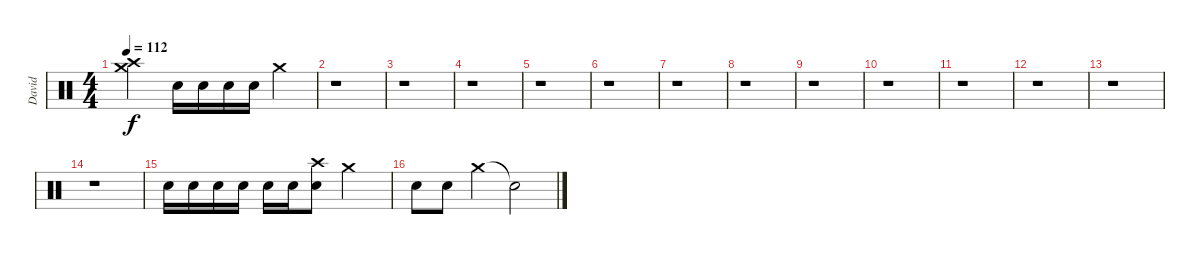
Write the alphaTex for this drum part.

\track ("David" "David") {instrument percussion}
\staff {score}
\articulation defaults
\ts (4 4)
\tempo 112
\clef neutral
\ks c
("Crash medium (hit)"{t} "Crash high (hit)"{t}).2{dy f} "Snare (hit) 2".16 "Snare (hit) 2".16 "Snare (hit) 2".16 "Snare (hit) 2".16 "Crash medium (hit)".4 |
r.1 |
r.1 |
r.1 |
r.1 |
r.1 |
r.1 |
r.1 |
r.1 |
r.1 |
r.1 |
r.1 |
r.1 |
r.1 |
"Snare (hit) 2".16 "Snare (hit) 2".16 "Snare (hit) 2".16 "Snare (hit) 2".16 "Snare (hit) 2".16 "Snare (hit) 2".16 ("Crash high (hit)" "Snare (hit) 2").8 "Crash medium (hit)".2 |
"Snare (hit) 2".8 "Snare (hit) 2".8 "Crash medium (hit)".4 "Snare (hit)"{t}.2
